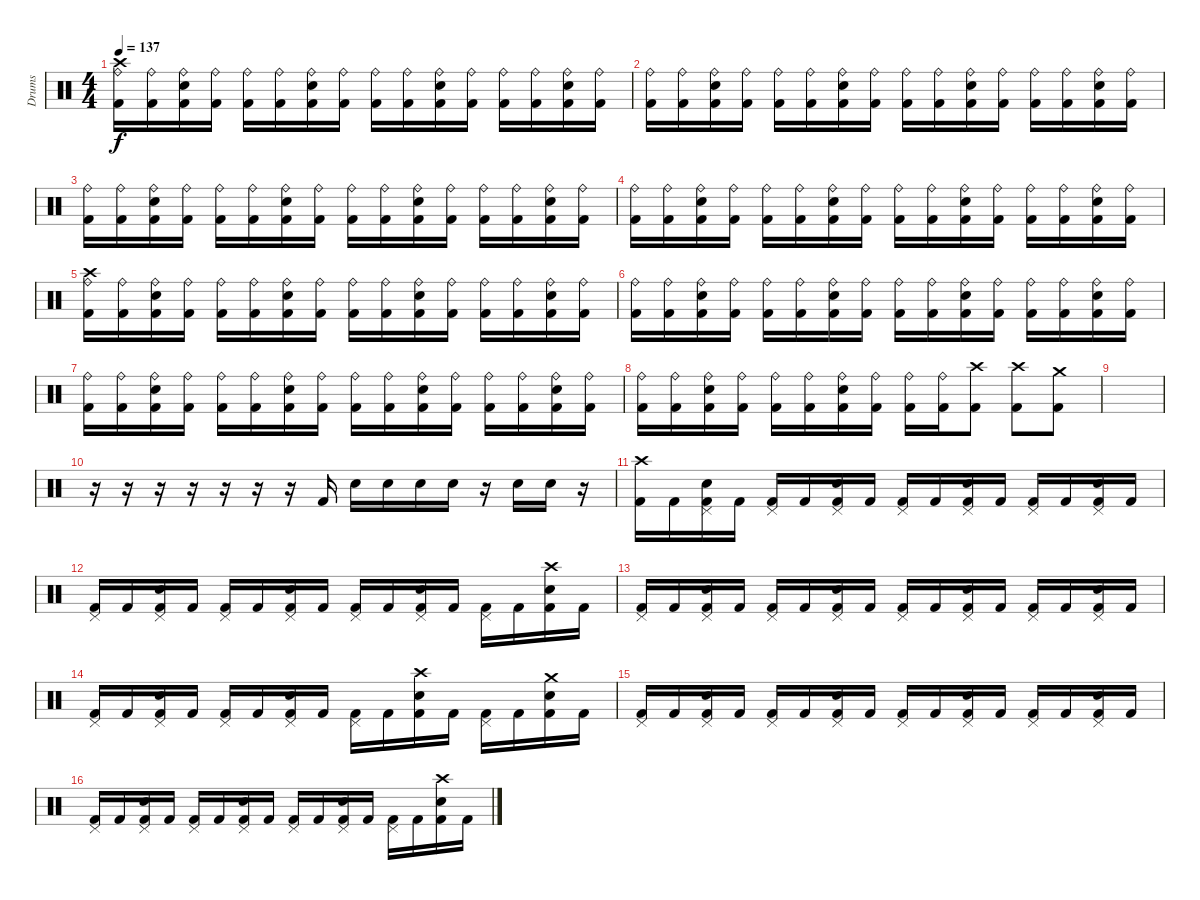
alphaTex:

\track ("Drums" "Drums") {instrument percussion}
\staff
\articulation defaults
\ts (4 4)
\tempo 137
\clef neutral
\ks c
("Crash high (hit)" "Ride (bell)" "Kick (hit) 2").16{dy f} ("Ride (bell)" "Kick (hit) 2").16 ("Ride (bell)" "Snare (hit) 2" "Kick (hit) 2").16 ("Ride (bell)" "Kick (hit) 2").16 ("Ride (bell)" "Kick (hit) 2").16 ("Ride (bell)" "Kick (hit) 2").16 ("Ride (bell)" "Snare (hit) 2" "Kick (hit) 2").16 ("Ride (bell)" "Kick (hit) 2").16 ("Ride (bell)" "Kick (hit) 2").16 ("Ride (bell)" "Kick (hit) 2").16 ("Ride (bell)" "Snare (hit) 2" "Kick (hit) 2").16 ("Ride (bell)" "Kick (hit) 2").16 ("Ride (bell)" "Kick (hit) 2").16 ("Ride (bell)" "Kick (hit) 2").16 ("Ride (bell)" "Snare (hit) 2" "Kick (hit) 2").16 ("Ride (bell)" "Kick (hit) 2").16 |
("Ride (bell)" "Kick (hit) 2").16 ("Ride (bell)" "Kick (hit) 2").16 ("Ride (bell)" "Snare (hit) 2" "Kick (hit) 2").16 ("Ride (bell)" "Kick (hit) 2").16 ("Ride (bell)" "Kick (hit) 2").16 ("Ride (bell)" "Kick (hit) 2").16 ("Ride (bell)" "Snare (hit) 2" "Kick (hit) 2").16 ("Ride (bell)" "Kick (hit) 2").16 ("Ride (bell)" "Kick (hit) 2").16 ("Ride (bell)" "Kick (hit) 2").16 ("Ride (bell)" "Snare (hit) 2" "Kick (hit) 2").16 ("Ride (bell)" "Kick (hit) 2").16 ("Ride (bell)" "Kick (hit) 2").16 ("Ride (bell)" "Kick (hit) 2").16 ("Ride (bell)" "Snare (hit) 2" "Kick (hit) 2").16 ("Ride (bell)" "Kick (hit) 2").16 |
("Ride (bell)" "Kick (hit) 2").16 ("Ride (bell)" "Kick (hit) 2").16 ("Ride (bell)" "Snare (hit) 2" "Kick (hit) 2").16 ("Ride (bell)" "Kick (hit) 2").16 ("Ride (bell)" "Kick (hit) 2").16 ("Ride (bell)" "Kick (hit) 2").16 ("Ride (bell)" "Snare (hit) 2" "Kick (hit) 2").16 ("Ride (bell)" "Kick (hit) 2").16 ("Ride (bell)" "Kick (hit) 2").16 ("Ride (bell)" "Kick (hit) 2").16 ("Ride (bell)" "Snare (hit) 2" "Kick (hit) 2").16 ("Ride (bell)" "Kick (hit) 2").16 ("Ride (bell)" "Kick (hit) 2").16 ("Ride (bell)" "Kick (hit) 2").16 ("Ride (bell)" "Snare (hit) 2" "Kick (hit) 2").16 ("Ride (bell)" "Kick (hit) 2").16 |
("Ride (bell)" "Kick (hit) 2").16 ("Ride (bell)" "Kick (hit) 2").16 ("Ride (bell)" "Snare (hit) 2" "Kick (hit) 2").16 ("Ride (bell)" "Kick (hit) 2").16 ("Ride (bell)" "Kick (hit) 2").16 ("Ride (bell)" "Kick (hit) 2").16 ("Ride (bell)" "Snare (hit) 2" "Kick (hit) 2").16 ("Ride (bell)" "Kick (hit) 2").16 ("Ride (bell)" "Kick (hit) 2").16 ("Ride (bell)" "Kick (hit) 2").16 ("Ride (bell)" "Snare (hit) 2" "Kick (hit) 2").16 ("Ride (bell)" "Kick (hit) 2").16 ("Ride (bell)" "Kick (hit) 2").16 ("Ride (bell)" "Kick (hit) 2").16 ("Ride (bell)" "Snare (hit) 2" "Kick (hit) 2").16 ("Ride (bell)" "Kick (hit) 2").16 |
("Crash high (hit)" "Ride (bell)" "Kick (hit) 2").16 ("Ride (bell)" "Kick (hit) 2").16 ("Ride (bell)" "Snare (hit) 2" "Kick (hit) 2").16 ("Ride (bell)" "Kick (hit) 2").16 ("Ride (bell)" "Kick (hit) 2").16 ("Ride (bell)" "Kick (hit) 2").16 ("Ride (bell)" "Snare (hit) 2" "Kick (hit) 2").16 ("Ride (bell)" "Kick (hit) 2").16 ("Ride (bell)" "Kick (hit) 2").16 ("Ride (bell)" "Kick (hit) 2").16 ("Ride (bell)" "Snare (hit) 2" "Kick (hit) 2").16 ("Ride (bell)" "Kick (hit) 2").16 ("Ride (bell)" "Kick (hit) 2").16 ("Ride (bell)" "Kick (hit) 2").16 ("Ride (bell)" "Snare (hit) 2" "Kick (hit) 2").16 ("Ride (bell)" "Kick (hit) 2").16 |
("Ride (bell)" "Kick (hit) 2").16 ("Ride (bell)" "Kick (hit) 2").16 ("Ride (bell)" "Snare (hit) 2" "Kick (hit) 2").16 ("Ride (bell)" "Kick (hit) 2").16 ("Ride (bell)" "Kick (hit) 2").16 ("Ride (bell)" "Kick (hit) 2").16 ("Ride (bell)" "Snare (hit) 2" "Kick (hit) 2").16 ("Ride (bell)" "Kick (hit) 2").16 ("Ride (bell)" "Kick (hit) 2").16 ("Ride (bell)" "Kick (hit) 2").16 ("Ride (bell)" "Snare (hit) 2" "Kick (hit) 2").16 ("Ride (bell)" "Kick (hit) 2").16 ("Ride (bell)" "Kick (hit) 2").16 ("Ride (bell)" "Kick (hit) 2").16 ("Ride (bell)" "Snare (hit) 2" "Kick (hit) 2").16 ("Ride (bell)" "Kick (hit) 2").16 |
("Ride (bell)" "Kick (hit) 2").16 ("Ride (bell)" "Kick (hit) 2").16 ("Ride (bell)" "Snare (hit) 2" "Kick (hit) 2").16 ("Ride (bell)" "Kick (hit) 2").16 ("Ride (bell)" "Kick (hit) 2").16 ("Ride (bell)" "Kick (hit) 2").16 ("Ride (bell)" "Snare (hit) 2" "Kick (hit) 2").16 ("Ride (bell)" "Kick (hit) 2").16 ("Ride (bell)" "Kick (hit) 2").16 ("Ride (bell)" "Kick (hit) 2").16 ("Ride (bell)" "Snare (hit) 2" "Kick (hit) 2").16 ("Ride (bell)" "Kick (hit) 2").16 ("Ride (bell)" "Kick (hit) 2").16 ("Ride (bell)" "Kick (hit) 2").16 ("Ride (bell)" "Snare (hit) 2" "Kick (hit) 2").16 ("Ride (bell)" "Kick (hit) 2").16 |
("Ride (bell)" "Kick (hit) 2").16 ("Ride (bell)" "Kick (hit) 2").16 ("Ride (bell)" "Snare (hit) 2" "Kick (hit) 2").16 ("Ride (bell)" "Kick (hit) 2").16 ("Ride (bell)" "Kick (hit) 2").16 ("Ride (bell)" "Kick (hit) 2").16 ("Ride (bell)" "Snare (hit) 2" "Kick (hit) 2").16 ("Ride (bell)" "Kick (hit) 2").16 ("Ride (bell)" "Kick (hit) 2").16 ("Ride (bell)" "Kick (hit) 2").16 ("Crash high (hit)" "Kick (hit) 2").8 ("Crash high (hit)" "Kick (hit) 2").8 ("Crash medium (hit)" "Kick (hit) 2").8 |
|
r.16 r.16 r.16 r.16 r.16 r.16 r.16 "Kick (hit) 2".16 "Snare (hit) 2".16 "Snare (hit) 2".16 "Snare (hit) 2".16 "Snare (hit) 2".16 r.16 "Snare (hit) 2".16 "Snare (hit) 2".16 r.16 |
("Crash high (hit)" "Kick (hit) 2").16 "Kick (hit) 2".16 ("Pedal Hi-Hat (hit)" "Snare (hit) 2" "Kick (hit) 2").16 "Kick (hit) 2".16 ("Pedal Hi-Hat (hit)" "Kick (hit) 2").16 "Kick (hit) 2".16 ("Pedal Hi-Hat (hit)" "Snare (hit) 2" "Kick (hit) 2").16 "Kick (hit) 2".16 ("Pedal Hi-Hat (hit)" "Kick (hit) 2").16 "Kick (hit) 2".16 ("Pedal Hi-Hat (hit)" "Snare (hit) 2" "Kick (hit) 2").16 "Kick (hit) 2".16 ("Pedal Hi-Hat (hit)" "Kick (hit) 2").16 "Kick (hit) 2".16 ("Pedal Hi-Hat (hit)" "Snare (hit) 2" "Kick (hit) 2").16 "Kick (hit) 2".16 |
("Pedal Hi-Hat (hit)" "Kick (hit) 2").16 "Kick (hit) 2".16 ("Pedal Hi-Hat (hit)" "Snare (hit) 2" "Kick (hit) 2").16 "Kick (hit) 2".16 ("Pedal Hi-Hat (hit)" "Kick (hit) 2").16 "Kick (hit) 2".16 ("Pedal Hi-Hat (hit)" "Snare (hit) 2" "Kick (hit) 2").16 "Kick (hit) 2".16 ("Pedal Hi-Hat (hit)" "Kick (hit) 2").16 "Kick (hit) 2".16 ("Pedal Hi-Hat (hit)" "Snare (hit) 2" "Kick (hit) 2").16 "Kick (hit) 2".16 ("Pedal Hi-Hat (hit)" "Kick (hit) 2").16 "Kick (hit) 2".16 ("Crash high (hit)" "Snare (hit) 2" "Kick (hit) 2").16 "Kick (hit) 2".16 |
("Pedal Hi-Hat (hit)" "Kick (hit) 2").16 "Kick (hit) 2".16 ("Pedal Hi-Hat (hit)" "Snare (hit) 2" "Kick (hit) 2").16 "Kick (hit) 2".16 ("Pedal Hi-Hat (hit)" "Kick (hit) 2").16 "Kick (hit) 2".16 ("Pedal Hi-Hat (hit)" "Snare (hit) 2" "Kick (hit) 2").16 "Kick (hit) 2".16 ("Pedal Hi-Hat (hit)" "Kick (hit) 2").16 "Kick (hit) 2".16 ("Pedal Hi-Hat (hit)" "Snare (hit) 2" "Kick (hit) 2").16 "Kick (hit) 2".16 ("Pedal Hi-Hat (hit)" "Kick (hit) 2").16 "Kick (hit) 2".16 ("Pedal Hi-Hat (hit)" "Snare (hit) 2" "Kick (hit) 2").16 "Kick (hit) 2".16 |
("Pedal Hi-Hat (hit)" "Kick (hit) 2").16 "Kick (hit) 2".16 ("Pedal Hi-Hat (hit)" "Snare (hit) 2" "Kick (hit) 2").16 "Kick (hit) 2".16 ("Pedal Hi-Hat (hit)" "Kick (hit) 2").16 "Kick (hit) 2".16 ("Pedal Hi-Hat (hit)" "Snare (hit) 2" "Kick (hit) 2").16 "Kick (hit) 2".16 ("Pedal Hi-Hat (hit)" "Kick (hit) 2").16 "Kick (hit) 2".16 ("Crash high (hit)" "Snare (hit) 2" "Kick (hit) 2").16 "Kick (hit) 2".16 ("Pedal Hi-Hat (hit)" "Kick (hit) 2").16 "Kick (hit) 2".16 ("Crash medium (hit)" "Snare (hit) 2" "Kick (hit) 2").16 "Kick (hit) 2".16 |
("Pedal Hi-Hat (hit)" "Kick (hit) 2").16 "Kick (hit) 2".16 ("Pedal Hi-Hat (hit)" "Snare (hit) 2" "Kick (hit) 2").16 "Kick (hit) 2".16 ("Pedal Hi-Hat (hit)" "Kick (hit) 2").16 "Kick (hit) 2".16 ("Pedal Hi-Hat (hit)" "Snare (hit) 2" "Kick (hit) 2").16 "Kick (hit) 2".16 ("Pedal Hi-Hat (hit)" "Kick (hit) 2").16 "Kick (hit) 2".16 ("Pedal Hi-Hat (hit)" "Snare (hit) 2" "Kick (hit) 2").16 "Kick (hit) 2".16 ("Pedal Hi-Hat (hit)" "Kick (hit) 2").16 "Kick (hit) 2".16 ("Pedal Hi-Hat (hit)" "Snare (hit) 2" "Kick (hit) 2").16 "Kick (hit) 2".16 |
("Pedal Hi-Hat (hit)" "Kick (hit) 2").16 "Kick (hit) 2".16 ("Pedal Hi-Hat (hit)" "Snare (hit) 2" "Kick (hit) 2").16 "Kick (hit) 2".16 ("Pedal Hi-Hat (hit)" "Kick (hit) 2").16 "Kick (hit) 2".16 ("Pedal Hi-Hat (hit)" "Snare (hit) 2" "Kick (hit) 2").16 "Kick (hit) 2".16 ("Pedal Hi-Hat (hit)" "Kick (hit) 2").16 "Kick (hit) 2".16 ("Pedal Hi-Hat (hit)" "Snare (hit) 2" "Kick (hit) 2").16 "Kick (hit) 2".16 ("Pedal Hi-Hat (hit)" "Kick (hit) 2").16 "Kick (hit) 2".16 ("Crash high (hit)" "Snare (hit) 2" "Kick (hit) 2").16 "Kick (hit) 2".16
